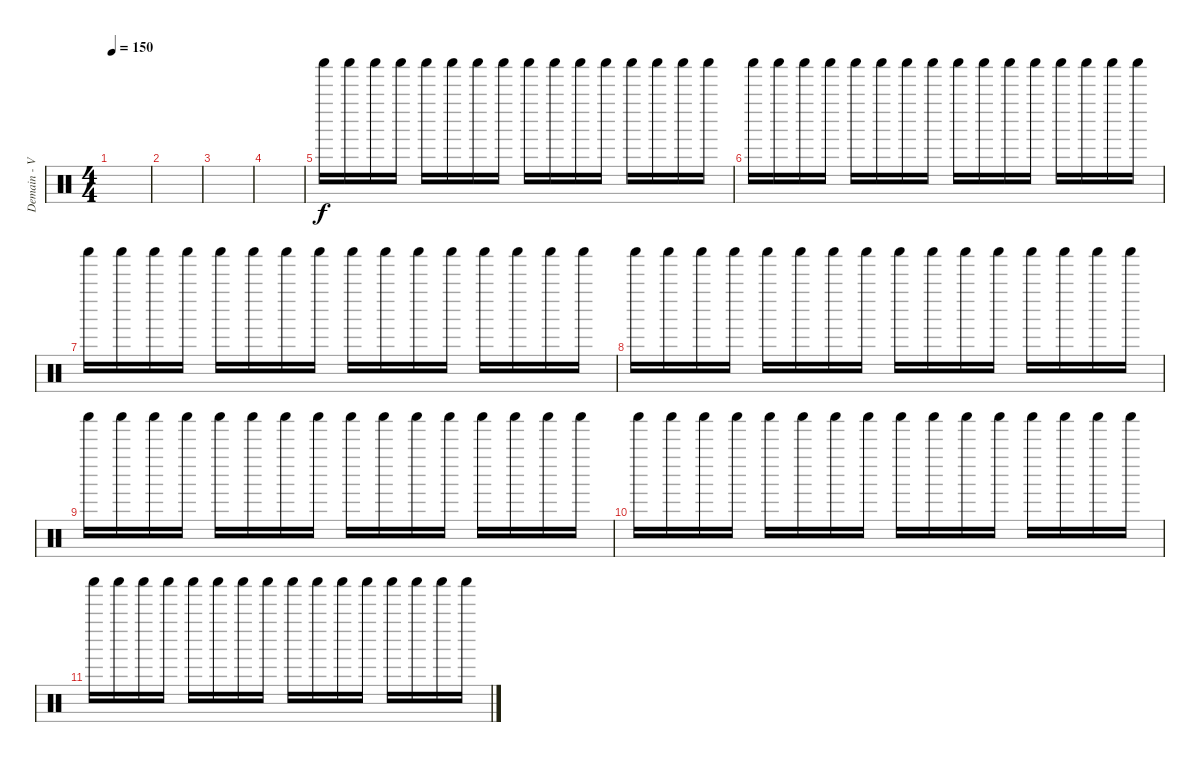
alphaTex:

\track ("Demain - Various Perc." "Demain - V") {instrument percussion}
\staff {score}
\articulation defaults
\ts (4 4)
\tempo 150
\clef neutral
\ks c
|
|
|
|
"Shaker (hit)".16 "Shaker (hit)".16 "Shaker (hit)".16 "Shaker (hit)".16 "Shaker (hit)".16 "Shaker (hit)".16 "Shaker (hit)".16 "Shaker (hit)".16 "Shaker (hit)".16 "Shaker (hit)".16 "Shaker (hit)".16 "Shaker (hit)".16 "Shaker (hit)".16 "Shaker (hit)".16 "Shaker (hit)".16 "Shaker (hit)".16 |
"Shaker (hit)".16 "Shaker (hit)".16 "Shaker (hit)".16 "Shaker (hit)".16 "Shaker (hit)".16 "Shaker (hit)".16 "Shaker (hit)".16 "Shaker (hit)".16 "Shaker (hit)".16 "Shaker (hit)".16 "Shaker (hit)".16 "Shaker (hit)".16 "Shaker (hit)".16 "Shaker (hit)".16 "Shaker (hit)".16 "Shaker (hit)".16 |
"Shaker (hit)".16 "Shaker (hit)".16 "Shaker (hit)".16 "Shaker (hit)".16 "Shaker (hit)".16 "Shaker (hit)".16 "Shaker (hit)".16 "Shaker (hit)".16 "Shaker (hit)".16 "Shaker (hit)".16 "Shaker (hit)".16 "Shaker (hit)".16 "Shaker (hit)".16 "Shaker (hit)".16 "Shaker (hit)".16 "Shaker (hit)".16 |
"Shaker (hit)".16 "Shaker (hit)".16 "Shaker (hit)".16 "Shaker (hit)".16 "Shaker (hit)".16 "Shaker (hit)".16 "Shaker (hit)".16 "Shaker (hit)".16 "Shaker (hit)".16 "Shaker (hit)".16 "Shaker (hit)".16 "Shaker (hit)".16 "Shaker (hit)".16 "Shaker (hit)".16 "Shaker (hit)".16 "Shaker (hit)".16 |
"Shaker (hit)".16 "Shaker (hit)".16 "Shaker (hit)".16 "Shaker (hit)".16 "Shaker (hit)".16 "Shaker (hit)".16 "Shaker (hit)".16 "Shaker (hit)".16 "Shaker (hit)".16 "Shaker (hit)".16 "Shaker (hit)".16 "Shaker (hit)".16 "Shaker (hit)".16 "Shaker (hit)".16 "Shaker (hit)".16 "Shaker (hit)".16 |
"Shaker (hit)".16 "Shaker (hit)".16 "Shaker (hit)".16 "Shaker (hit)".16 "Shaker (hit)".16 "Shaker (hit)".16 "Shaker (hit)".16 "Shaker (hit)".16 "Shaker (hit)".16 "Shaker (hit)".16 "Shaker (hit)".16 "Shaker (hit)".16 "Shaker (hit)".16 "Shaker (hit)".16 "Shaker (hit)".16 "Shaker (hit)".16 |
"Shaker (hit)".16 "Shaker (hit)".16 "Shaker (hit)".16 "Shaker (hit)".16 "Shaker (hit)".16 "Shaker (hit)".16 "Shaker (hit)".16 "Shaker (hit)".16 "Shaker (hit)".16 "Shaker (hit)".16 "Shaker (hit)".16 "Shaker (hit)".16 "Shaker (hit)".16 "Shaker (hit)".16 "Shaker (hit)".16 "Shaker (hit)".16
